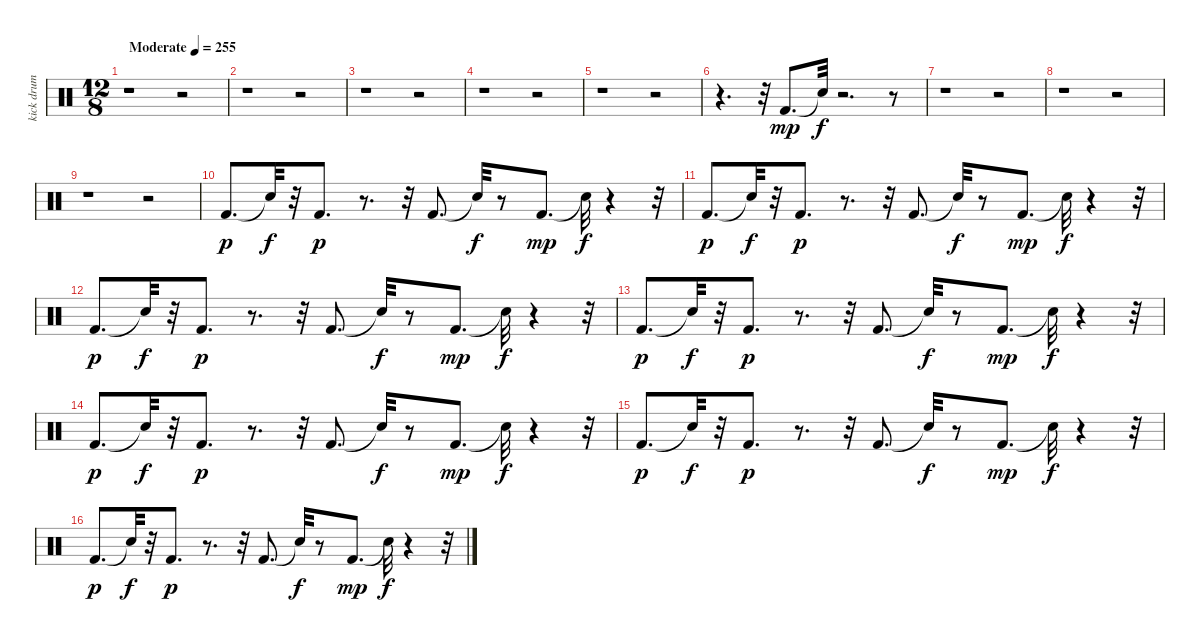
\track ("kick drum           " "kick drum ") {instrument percussion}
\staff {score}
\articulation defaults
\ts (12 8)
\tempo (255 "Moderate")
\clef neutral
\ks c
r.1{dy mp} r.2 |
r.1 r.2 |
r.1 r.2 |
r.1 r.2 |
r.1 r.2 |
r.4{d} r.32 "Kick (hit) 2".8{d} "Snare (hit)"{t}.32{dy f} r.2{d} r.8 |
r.1 r.2 |
r.1 r.2 |
r.1 r.2 |
"Kick (hit) 2".8{d dy p} "Snare (hit)"{t}.32{dy f} r.32 "Kick (hit) 2".8{d dy p} r.8{d} r.32 "Kick (hit) 2".8{d} "Snare (hit)"{t}.32{dy f} r.8 "Kick (hit) 2".8{d dy mp} "Snare (hit)"{t}.32{dy f} r.4 r.32 |
"Kick (hit) 2".8{d dy p} "Snare (hit)"{t}.32{dy f} r.32 "Kick (hit) 2".8{d dy p} r.8{d} r.32 "Kick (hit) 2".8{d} "Snare (hit)"{t}.32{dy f} r.8 "Kick (hit) 2".8{d dy mp} "Snare (hit)"{t}.32{dy f} r.4 r.32 |
"Kick (hit) 2".8{d dy p} "Snare (hit)"{t}.32{dy f} r.32 "Kick (hit) 2".8{d dy p} r.8{d} r.32 "Kick (hit) 2".8{d} "Snare (hit)"{t}.32{dy f} r.8 "Kick (hit) 2".8{d dy mp} "Snare (hit)"{t}.32{dy f} r.4 r.32 |
"Kick (hit) 2".8{d dy p} "Snare (hit)"{t}.32{dy f} r.32 "Kick (hit) 2".8{d dy p} r.8{d} r.32 "Kick (hit) 2".8{d} "Snare (hit)"{t}.32{dy f} r.8 "Kick (hit) 2".8{d dy mp} "Snare (hit)"{t}.32{dy f} r.4 r.32 |
"Kick (hit) 2".8{d dy p} "Snare (hit)"{t}.32{dy f} r.32 "Kick (hit) 2".8{d dy p} r.8{d} r.32 "Kick (hit) 2".8{d} "Snare (hit)"{t}.32{dy f} r.8 "Kick (hit) 2".8{d dy mp} "Snare (hit)"{t}.32{dy f} r.4 r.32 |
"Kick (hit) 2".8{d dy p} "Snare (hit)"{t}.32{dy f} r.32 "Kick (hit) 2".8{d dy p} r.8{d} r.32 "Kick (hit) 2".8{d} "Snare (hit)"{t}.32{dy f} r.8 "Kick (hit) 2".8{d dy mp} "Snare (hit)"{t}.32{dy f} r.4 r.32 |
"Kick (hit) 2".8{d dy p} "Snare (hit)"{t}.32{dy f} r.32 "Kick (hit) 2".8{d dy p} r.8{d} r.32 "Kick (hit) 2".8{d} "Snare (hit)"{t}.32{dy f} r.8 "Kick (hit) 2".8{d dy mp} "Snare (hit)"{t}.32{dy f} r.4 r.32
